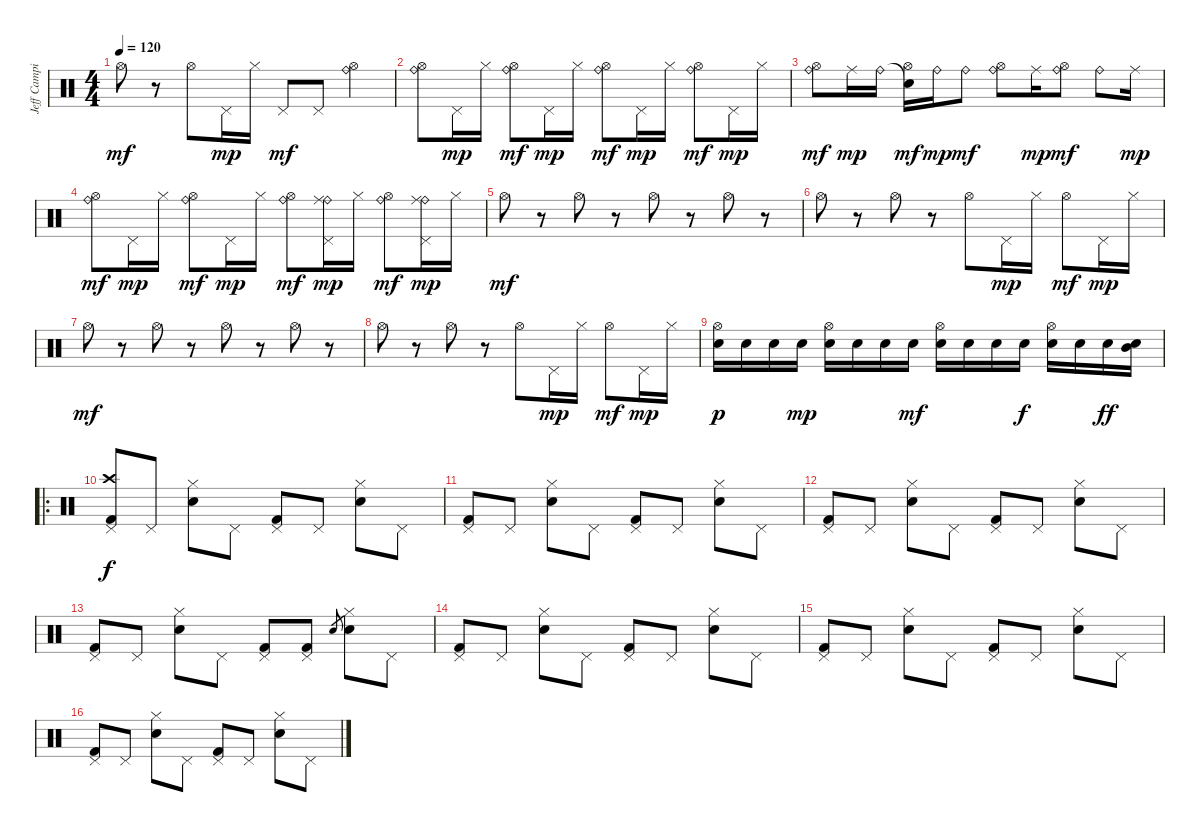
\track ("Jeff Campitelli" "Jeff Campi") {instrument percussion}
\staff {score}
\articulation defaults
\ts (4 4)
\tempo 120
\clef neutral
\ks c "Hi-Hat (open)".8{dy mf}
r.8 "Hi-Hat (open)".8 "Pedal Hi-Hat (hit)".16{dy mp} "Hi-Hat (closed)".16 "Pedal Hi-Hat (hit)".8{dy mf} "Pedal Hi-Hat (hit)".8 ("Ride (bell)" "Hi-Hat (open)").4 |
("Ride (bell)" "Hi-Hat (open)").8 "Pedal Hi-Hat (hit)".16{dy mp} "Hi-Hat (closed)".16 ("Ride (bell)" "Hi-Hat (open)").8{dy mf} "Pedal Hi-Hat (hit)".16{dy mp} "Hi-Hat (closed)".16 ("Ride (bell)" "Hi-Hat (open)").8{dy mf} "Pedal Hi-Hat (hit)".16{dy mp} "Hi-Hat (closed)".16 ("Ride (bell)" "Hi-Hat (open)").8{dy mf} "Pedal Hi-Hat (hit)".16{dy mp} "Hi-Hat (closed)".16 |
("Ride (bell)" "Hi-Hat (open)").8{dy mf} "Ride (middle)".16{dy mp} "Ride (bell)".16 ("Snare (hit)"{t} "Hi-Hat (open)").16{dy mf} "Ride (bell)".16{dy mp} "Ride (bell)".8{dy mf} ("Ride (bell)" "Hi-Hat (open)").8 "Ride (middle)".16{dy mp} ("Ride (bell)" "Hi-Hat (open)").8{dy mf} "Ride (bell)".8 "Ride (middle)".16{dy mp} |
("Ride (bell)" "Hi-Hat (open)").8{dy mf} "Pedal Hi-Hat (hit)".16{dy mp} "Hi-Hat (closed)".16 ("Ride (bell)" "Hi-Hat (open)").8{dy mf} "Pedal Hi-Hat (hit)".16{dy mp} "Hi-Hat (closed)".16 ("Ride (bell)" "Hi-Hat (open)").8{dy mf} ("Ride (bell)" "Ride (middle)" "Pedal Hi-Hat (hit)").16{dy mp} "Hi-Hat (closed)".16 ("Ride (bell)" "Hi-Hat (open)").8{dy mf} ("Ride (bell)" "Ride (middle)" "Pedal Hi-Hat (hit)").16{dy mp} "Hi-Hat (closed)".16 |
"Hi-Hat (open)".8{dy mf} r.8 "Hi-Hat (open)".8 r.8 "Hi-Hat (open)".8 r.8 "Hi-Hat (open)".8 r.8 |
"Hi-Hat (open)".8 r.8 "Hi-Hat (open)".8 r.8 "Hi-Hat (open)".8 "Pedal Hi-Hat (hit)".16{dy mp} "Hi-Hat (closed)".16 "Hi-Hat (open)".8{dy mf} "Pedal Hi-Hat (hit)".16{dy mp} "Hi-Hat (closed)".16 |
"Hi-Hat (open)".8{dy mf} r.8 "Hi-Hat (open)".8 r.8 "Hi-Hat (open)".8 r.8 "Hi-Hat (open)".8 r.8 |
"Hi-Hat (open)".8 r.8 "Hi-Hat (open)".8 r.8 "Hi-Hat (open)".8 "Pedal Hi-Hat (hit)".16{dy mp} "Hi-Hat (closed)".16 "Hi-Hat (open)".8{dy mf} "Pedal Hi-Hat (hit)".16{dy mp} "Hi-Hat (closed)".16 |
("Hi-Hat (open)" "Snare (hit) 2").16{dy p} "Snare (hit) 2".16 "Snare (hit) 2".16 "Snare (hit) 2".16{dy mp} ("Hi-Hat (open)" "Snare (hit) 2").16 "Snare (hit) 2".16 "Snare (hit) 2".16 "Snare (hit) 2".16{dy mf} ("Hi-Hat (open)" "Snare (hit) 2").16 "Snare (hit) 2".16 "Snare (hit) 2".16 "Snare (hit) 2".16{dy f} ("Hi-Hat (open)" "Snare (hit) 2").16 "Snare (hit) 2".16 "Snare (hit) 2".16{dy ff} ("Mid Tom (hit)" "Snare (hit) 2").16 |
\ro
("Crash high (hit)" "Pedal Hi-Hat (hit)" "Kick (hit) 2").8{dy f} "Pedal Hi-Hat (hit)".8 ("Hi-Hat (closed)" "Snare (hit) 2").8 "Pedal Hi-Hat (hit)".8 ("Pedal Hi-Hat (hit)" "Kick (hit) 2").8 "Pedal Hi-Hat (hit)".8 ("Hi-Hat (closed)" "Snare (hit) 2").8 "Pedal Hi-Hat (hit)".8 |
("Pedal Hi-Hat (hit)" "Kick (hit) 2").8 "Pedal Hi-Hat (hit)".8 ("Hi-Hat (closed)" "Snare (hit) 2").8 "Pedal Hi-Hat (hit)".8 ("Pedal Hi-Hat (hit)" "Kick (hit) 2").8 "Pedal Hi-Hat (hit)".8 ("Hi-Hat (closed)" "Snare (hit) 2").8 "Pedal Hi-Hat (hit)".8 |
("Pedal Hi-Hat (hit)" "Kick (hit) 2").8 "Pedal Hi-Hat (hit)".8 ("Hi-Hat (closed)" "Snare (hit) 2").8 "Pedal Hi-Hat (hit)".8 ("Pedal Hi-Hat (hit)" "Kick (hit) 2").8 "Pedal Hi-Hat (hit)".8 ("Hi-Hat (closed)" "Snare (hit) 2").8 "Pedal Hi-Hat (hit)".8 |
("Pedal Hi-Hat (hit)" "Kick (hit) 2").8 "Pedal Hi-Hat (hit)".8 ("Hi-Hat (closed)" "Snare (hit) 2").8 "Pedal Hi-Hat (hit)".8 ("Pedal Hi-Hat (hit)" "Kick (hit) 2").8 ("Pedal Hi-Hat (hit)" "Kick (hit) 2").8 "Snare (hit) 2".8{gr} ("Hi-Hat (closed)" "Snare (hit) 2").8 "Pedal Hi-Hat (hit)".8 |
("Pedal Hi-Hat (hit)" "Kick (hit) 2").8 "Pedal Hi-Hat (hit)".8 ("Hi-Hat (closed)" "Snare (hit) 2").8 "Pedal Hi-Hat (hit)".8 ("Pedal Hi-Hat (hit)" "Kick (hit) 2").8 "Pedal Hi-Hat (hit)".8 ("Hi-Hat (closed)" "Snare (hit) 2").8 "Pedal Hi-Hat (hit)".8 |
("Pedal Hi-Hat (hit)" "Kick (hit) 2").8 "Pedal Hi-Hat (hit)".8 ("Hi-Hat (closed)" "Snare (hit) 2").8 "Pedal Hi-Hat (hit)".8 ("Pedal Hi-Hat (hit)" "Kick (hit) 2").8 "Pedal Hi-Hat (hit)".8 ("Hi-Hat (closed)" "Snare (hit) 2").8 "Pedal Hi-Hat (hit)".8 |
("Pedal Hi-Hat (hit)" "Kick (hit) 2").8 "Pedal Hi-Hat (hit)".8 ("Hi-Hat (closed)" "Snare (hit) 2").8 "Pedal Hi-Hat (hit)".8 ("Pedal Hi-Hat (hit)" "Kick (hit) 2").8 "Pedal Hi-Hat (hit)".8 ("Hi-Hat (closed)" "Snare (hit) 2").8 "Pedal Hi-Hat (hit)".8
